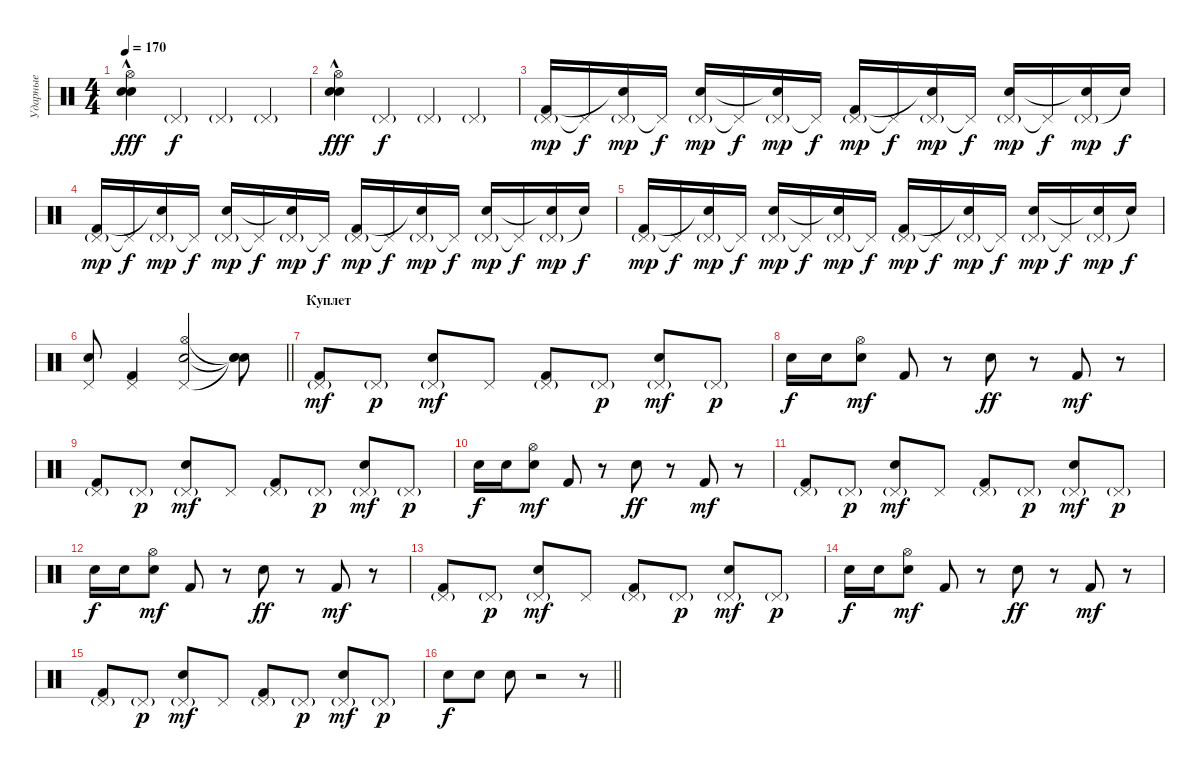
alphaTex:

\track ("Ударные" "Ударные") {instrument percussion}
\staff {score}
\articulation defaults
\ts (4 4)
\tempo 170
\clef neutral
\ks c
("Electric Snare (hit)"{hac} "Hi-Hat (open)" "Snare (hit) 2").4{dy fff} "Pedal Hi-Hat (hit)"{g}.4{dy f} "Pedal Hi-Hat (hit)"{g}.4 "Pedal Hi-Hat (hit)"{g}.4 |
("Electric Snare (hit)"{hac} "Hi-Hat (open)" "Snare (hit) 2").4{dy fff} "Pedal Hi-Hat (hit)"{g}.4{dy f} "Pedal Hi-Hat (hit)"{g}.4 "Pedal Hi-Hat (hit)"{g}.4 |
("Pedal Hi-Hat (hit)"{g} "Kick (hit) 2").16{dy mp} "Pedal Hi-Hat (hit)"{t}.16{dy f} ("Pedal Hi-Hat (hit)"{g} "Snare (hit)"{t}).16{dy mp} "Pedal Hi-Hat (hit)"{t}.16{dy f} ("Pedal Hi-Hat (hit)"{g} "Electric Snare (hit)").16{dy mp} "Pedal Hi-Hat (hit)"{t}.16{dy f} ("Pedal Hi-Hat (hit)"{g} "Snare (hit)"{t}).16{dy mp} "Pedal Hi-Hat (hit)"{t}.16{dy f} ("Pedal Hi-Hat (hit)"{g} "Kick (hit) 2").16{dy mp} "Pedal Hi-Hat (hit)"{t}.16{dy f} ("Pedal Hi-Hat (hit)"{g} "Snare (hit)"{t}).16{dy mp} "Pedal Hi-Hat (hit)"{t}.16{dy f} ("Pedal Hi-Hat (hit)"{g} "Electric Snare (hit)").16{dy mp} "Pedal Hi-Hat (hit)"{t}.16{dy f} ("Pedal Hi-Hat (hit)"{g} "Snare (hit)"{t}).16{dy mp} "Snare (hit)"{t}.16{dy f} |
("Pedal Hi-Hat (hit)"{g} "Kick (hit) 2").16{dy mp} "Pedal Hi-Hat (hit)"{t}.16{dy f} ("Pedal Hi-Hat (hit)"{g} "Snare (hit)"{t}).16{dy mp} "Pedal Hi-Hat (hit)"{t}.16{dy f} ("Pedal Hi-Hat (hit)"{g} "Electric Snare (hit)").16{dy mp} "Pedal Hi-Hat (hit)"{t}.16{dy f} ("Pedal Hi-Hat (hit)"{g} "Snare (hit)"{t}).16{dy mp} "Pedal Hi-Hat (hit)"{t}.16{dy f} ("Pedal Hi-Hat (hit)"{g} "Kick (hit) 2").16{dy mp} "Pedal Hi-Hat (hit)"{t}.16{dy f} ("Pedal Hi-Hat (hit)"{g} "Snare (hit)"{t}).16{dy mp} "Pedal Hi-Hat (hit)"{t}.16{dy f} ("Pedal Hi-Hat (hit)"{g} "Electric Snare (hit)").16{dy mp} "Pedal Hi-Hat (hit)"{t}.16{dy f} ("Pedal Hi-Hat (hit)"{g} "Snare (hit)"{t}).16{dy mp} "Snare (hit)"{t}.16{dy f} |
("Pedal Hi-Hat (hit)"{g} "Kick (hit) 2").16{dy mp} "Pedal Hi-Hat (hit)"{t}.16{dy f} ("Pedal Hi-Hat (hit)"{g} "Snare (hit)"{t}).16{dy mp} "Pedal Hi-Hat (hit)"{t}.16{dy f} ("Pedal Hi-Hat (hit)"{g} "Electric Snare (hit)").16{dy mp} "Pedal Hi-Hat (hit)"{t}.16{dy f} ("Pedal Hi-Hat (hit)"{g} "Snare (hit)"{t}).16{dy mp} "Pedal Hi-Hat (hit)"{t}.16{dy f} ("Pedal Hi-Hat (hit)"{g} "Kick (hit) 2").16{dy mp} "Pedal Hi-Hat (hit)"{t}.16{dy f} ("Pedal Hi-Hat (hit)"{g} "Snare (hit)"{t}).16{dy mp} "Pedal Hi-Hat (hit)"{t}.16{dy f} ("Pedal Hi-Hat (hit)"{g} "Electric Snare (hit)").16{dy mp} "Pedal Hi-Hat (hit)"{t}.16{dy f} ("Pedal Hi-Hat (hit)"{g} "Snare (hit)"{t}).16{dy mp} "Snare (hit)"{t}.16{dy f} |
\barLineRight lightlight
("Pedal Hi-Hat (hit)" "Electric Snare (hit)").8 ("Pedal Hi-Hat (hit)" "Kick (hit) 2").4 ("Pedal Hi-Hat (hit)" "Electric Snare (hit)" "Hi-Hat (open)").2 ("Snare (hit)"{t} "Snare (hit)"{t} "Snare (hit)"{t}).8 |
\section ("" "Куплет")
("Pedal Hi-Hat (hit)"{g} "Kick (hit) 2").8{dy mf} "Pedal Hi-Hat (hit)"{g}.8{dy p} ("Pedal Hi-Hat (hit)"{g} "Electric Snare (hit)").8{dy mf} "Pedal Hi-Hat (hit)".8 ("Pedal Hi-Hat (hit)"{g} "Kick (hit) 2").8 "Pedal Hi-Hat (hit)"{g}.8{dy p} ("Pedal Hi-Hat (hit)"{g} "Electric Snare (hit)").8{dy mf} "Pedal Hi-Hat (hit)"{g}.8{dy p} |
"Snare (hit) 2".16{dy f} "Snare (hit) 2".16 ("Hi-Hat (open)" "Electric Snare (hit)").8{dy mf} "Kick (hit) 2".8 r.8 "Electric Snare (hit)".8{dy ff} r.8 "Kick (hit) 2".8{dy mf} r.8 |
("Pedal Hi-Hat (hit)"{g} "Kick (hit) 2").8 "Pedal Hi-Hat (hit)"{g}.8{dy p} ("Pedal Hi-Hat (hit)"{g} "Electric Snare (hit)").8{dy mf} "Pedal Hi-Hat (hit)".8 ("Pedal Hi-Hat (hit)"{g} "Kick (hit) 2").8 "Pedal Hi-Hat (hit)"{g}.8{dy p} ("Pedal Hi-Hat (hit)"{g} "Electric Snare (hit)").8{dy mf} "Pedal Hi-Hat (hit)"{g}.8{dy p} |
"Snare (hit) 2".16{dy f} "Snare (hit) 2".16 ("Hi-Hat (open)" "Electric Snare (hit)").8{dy mf} "Kick (hit) 2".8 r.8 "Electric Snare (hit)".8{dy ff} r.8 "Kick (hit) 2".8{dy mf} r.8 |
("Pedal Hi-Hat (hit)"{g} "Kick (hit) 2").8 "Pedal Hi-Hat (hit)"{g}.8{dy p} ("Pedal Hi-Hat (hit)"{g} "Electric Snare (hit)").8{dy mf} "Pedal Hi-Hat (hit)".8 ("Pedal Hi-Hat (hit)"{g} "Kick (hit) 2").8 "Pedal Hi-Hat (hit)"{g}.8{dy p} ("Pedal Hi-Hat (hit)"{g} "Electric Snare (hit)").8{dy mf} "Pedal Hi-Hat (hit)"{g}.8{dy p} |
"Snare (hit) 2".16{dy f} "Snare (hit) 2".16 ("Hi-Hat (open)" "Electric Snare (hit)").8{dy mf} "Kick (hit) 2".8 r.8 "Electric Snare (hit)".8{dy ff} r.8 "Kick (hit) 2".8{dy mf} r.8 |
("Pedal Hi-Hat (hit)"{g} "Kick (hit) 2").8 "Pedal Hi-Hat (hit)"{g}.8{dy p} ("Pedal Hi-Hat (hit)"{g} "Electric Snare (hit)").8{dy mf} "Pedal Hi-Hat (hit)".8 ("Pedal Hi-Hat (hit)"{g} "Kick (hit) 2").8 "Pedal Hi-Hat (hit)"{g}.8{dy p} ("Pedal Hi-Hat (hit)"{g} "Electric Snare (hit)").8{dy mf} "Pedal Hi-Hat (hit)"{g}.8{dy p} |
"Snare (hit) 2".16{dy f} "Snare (hit) 2".16 ("Hi-Hat (open)" "Electric Snare (hit)").8{dy mf} "Kick (hit) 2".8 r.8 "Electric Snare (hit)".8{dy ff} r.8 "Kick (hit) 2".8{dy mf} r.8 |
("Pedal Hi-Hat (hit)"{g} "Kick (hit) 2").8 "Pedal Hi-Hat (hit)"{g}.8{dy p} ("Pedal Hi-Hat (hit)"{g} "Electric Snare (hit)").8{dy mf} "Pedal Hi-Hat (hit)".8 ("Pedal Hi-Hat (hit)"{g} "Kick (hit) 2").8 "Pedal Hi-Hat (hit)"{g}.8{dy p} ("Pedal Hi-Hat (hit)"{g} "Electric Snare (hit)").8{dy mf} "Pedal Hi-Hat (hit)"{g}.8{dy p} |
\barLineRight lightlight "Electric Snare (hit)".8{dy f} "Electric Snare (hit)".8 "Electric Snare (hit)".8
r.2 r.8
